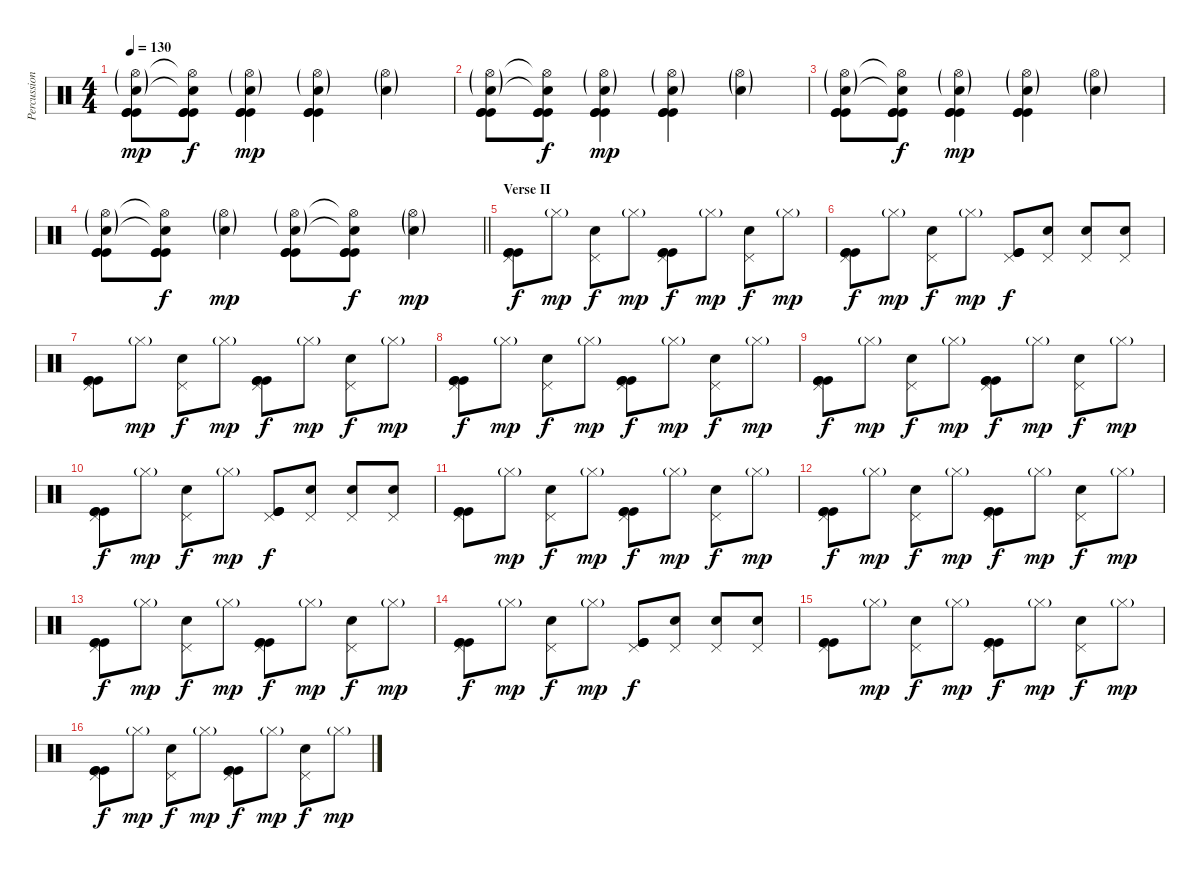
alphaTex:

\track ("Percussion" "Percussion") {instrument percussion}
\staff {score}
\articulation defaults
\ts (4 4)
\tempo 130
\clef neutral
\ks c
("Hi-Hat (open)"{g} "Snare (hit) 2"{g} "Kick (hit)" "Kick (hit)" "Kick (hit)").8{dy mp} ("Hi-Hat (open)"{t} "Snare (hit) 2"{t} "Kick (hit)" "Kick (hit)" "Kick (hit)").8{dy f} ("Hi-Hat (open)"{g} "Snare (hit) 2"{g} "Kick (hit)" "Kick (hit)" "Kick (hit)").4{dy mp} ("Hi-Hat (open)"{g} "Snare (hit) 2"{g} "Kick (hit)" "Kick (hit)" "Kick (hit)").4 ("Hi-Hat (open)"{g} "Snare (hit) 2"{g}).4 |
("Hi-Hat (open)"{g} "Snare (hit) 2"{g} "Kick (hit)" "Kick (hit)" "Kick (hit)").8 ("Hi-Hat (open)"{t} "Snare (hit) 2"{t} "Kick (hit)" "Kick (hit)" "Kick (hit)").8{dy f} ("Hi-Hat (open)"{g} "Snare (hit) 2"{g} "Kick (hit)" "Kick (hit)" "Kick (hit)").4{dy mp} ("Hi-Hat (open)"{g} "Snare (hit) 2"{g} "Kick (hit)" "Kick (hit)" "Kick (hit)").4 ("Hi-Hat (open)"{g} "Snare (hit) 2"{g}).4 |
("Hi-Hat (open)"{g} "Snare (hit) 2"{g} "Kick (hit)" "Kick (hit)" "Kick (hit)").8 ("Hi-Hat (open)"{t} "Snare (hit) 2"{t} "Kick (hit)" "Kick (hit)" "Kick (hit)").8{dy f} ("Hi-Hat (open)"{g} "Snare (hit) 2"{g} "Kick (hit)" "Kick (hit)" "Kick (hit)").4{dy mp} ("Hi-Hat (open)"{g} "Snare (hit) 2"{g} "Kick (hit)" "Kick (hit)" "Kick (hit)").4 ("Hi-Hat (open)"{g} "Snare (hit) 2"{g}).4 |
\barLineRight lightlight
("Hi-Hat (open)"{g} "Snare (hit) 2"{g} "Kick (hit)" "Kick (hit)" "Kick (hit)").8 ("Hi-Hat (open)"{t} "Snare (hit) 2"{t} "Kick (hit)" "Kick (hit)" "Kick (hit)").8{dy f} ("Hi-Hat (open)"{g} "Snare (hit) 2"{g}).4{dy mp} ("Hi-Hat (open)"{g} "Snare (hit) 2"{g} "Kick (hit)" "Kick (hit)" "Kick (hit)").8 ("Hi-Hat (open)"{t} "Snare (hit) 2"{t} "Kick (hit)" "Kick (hit)" "Kick (hit)").8{dy f} ("Hi-Hat (open)"{g} "Snare (hit) 2"{g}).4{dy mp} |
\section ("" "Verse II")
("Pedal Hi-Hat (hit)" "Kick (hit)" "Kick (hit)" "Kick (hit)").8{dy f} "Hi-Hat (closed)"{g}.8{dy mp} ("Pedal Hi-Hat (hit)" "Snare (hit) 2").8{dy f} "Hi-Hat (closed)"{g}.8{dy mp} ("Pedal Hi-Hat (hit)" "Kick (hit)" "Kick (hit)" "Kick (hit)").8{dy f} "Hi-Hat (closed)"{g}.8{dy mp} ("Pedal Hi-Hat (hit)" "Snare (hit) 2").8{dy f} "Hi-Hat (closed)"{g}.8{dy mp} |
("Pedal Hi-Hat (hit)" "Kick (hit)" "Kick (hit)" "Kick (hit)").8{dy f} "Hi-Hat (closed)"{g}.8{dy mp} ("Pedal Hi-Hat (hit)" "Snare (hit) 2").8{dy f} "Hi-Hat (closed)"{g}.8{dy mp} ("Pedal Hi-Hat (hit)" "Kick (hit)" "Kick (hit)" "Kick (hit)").8{dy f} ("Pedal Hi-Hat (hit)" "Snare (hit) 2").8 ("Pedal Hi-Hat (hit)" "Snare (hit) 2").8 ("Pedal Hi-Hat (hit)" "Snare (hit) 2").8 |
("Pedal Hi-Hat (hit)" "Kick (hit)" "Kick (hit)" "Kick (hit)").8 "Hi-Hat (closed)"{g}.8{dy mp} ("Pedal Hi-Hat (hit)" "Snare (hit) 2").8{dy f} "Hi-Hat (closed)"{g}.8{dy mp} ("Pedal Hi-Hat (hit)" "Kick (hit)" "Kick (hit)" "Kick (hit)").8{dy f} "Hi-Hat (closed)"{g}.8{dy mp} ("Pedal Hi-Hat (hit)" "Snare (hit) 2").8{dy f} "Hi-Hat (closed)"{g}.8{dy mp} |
("Pedal Hi-Hat (hit)" "Kick (hit)" "Kick (hit)" "Kick (hit)").8{dy f} "Hi-Hat (closed)"{g}.8{dy mp} ("Pedal Hi-Hat (hit)" "Snare (hit) 2").8{dy f} "Hi-Hat (closed)"{g}.8{dy mp} ("Pedal Hi-Hat (hit)" "Kick (hit)" "Kick (hit)" "Kick (hit)").8{dy f} "Hi-Hat (closed)"{g}.8{dy mp} ("Pedal Hi-Hat (hit)" "Snare (hit) 2").8{dy f} "Hi-Hat (closed)"{g}.8{dy mp} |
("Pedal Hi-Hat (hit)" "Kick (hit)" "Kick (hit)" "Kick (hit)").8{dy f} "Hi-Hat (closed)"{g}.8{dy mp} ("Pedal Hi-Hat (hit)" "Snare (hit) 2").8{dy f} "Hi-Hat (closed)"{g}.8{dy mp} ("Pedal Hi-Hat (hit)" "Kick (hit)" "Kick (hit)" "Kick (hit)").8{dy f} "Hi-Hat (closed)"{g}.8{dy mp} ("Pedal Hi-Hat (hit)" "Snare (hit) 2").8{dy f} "Hi-Hat (closed)"{g}.8{dy mp} |
("Pedal Hi-Hat (hit)" "Kick (hit)" "Kick (hit)" "Kick (hit)").8{dy f} "Hi-Hat (closed)"{g}.8{dy mp} ("Pedal Hi-Hat (hit)" "Snare (hit) 2").8{dy f} "Hi-Hat (closed)"{g}.8{dy mp} ("Pedal Hi-Hat (hit)" "Kick (hit)" "Kick (hit)" "Kick (hit)").8{dy f} ("Pedal Hi-Hat (hit)" "Snare (hit) 2").8 ("Pedal Hi-Hat (hit)" "Snare (hit) 2").8 ("Pedal Hi-Hat (hit)" "Snare (hit) 2").8 |
("Pedal Hi-Hat (hit)" "Kick (hit)" "Kick (hit)" "Kick (hit)").8 "Hi-Hat (closed)"{g}.8{dy mp} ("Pedal Hi-Hat (hit)" "Snare (hit) 2").8{dy f} "Hi-Hat (closed)"{g}.8{dy mp} ("Pedal Hi-Hat (hit)" "Kick (hit)" "Kick (hit)" "Kick (hit)").8{dy f} "Hi-Hat (closed)"{g}.8{dy mp} ("Pedal Hi-Hat (hit)" "Snare (hit) 2").8{dy f} "Hi-Hat (closed)"{g}.8{dy mp} |
("Pedal Hi-Hat (hit)" "Kick (hit)" "Kick (hit)" "Kick (hit)").8{dy f} "Hi-Hat (closed)"{g}.8{dy mp} ("Pedal Hi-Hat (hit)" "Snare (hit) 2").8{dy f} "Hi-Hat (closed)"{g}.8{dy mp} ("Pedal Hi-Hat (hit)" "Kick (hit)" "Kick (hit)" "Kick (hit)").8{dy f} "Hi-Hat (closed)"{g}.8{dy mp} ("Pedal Hi-Hat (hit)" "Snare (hit) 2").8{dy f} "Hi-Hat (closed)"{g}.8{dy mp} |
("Pedal Hi-Hat (hit)" "Kick (hit)" "Kick (hit)" "Kick (hit)").8{dy f} "Hi-Hat (closed)"{g}.8{dy mp} ("Pedal Hi-Hat (hit)" "Snare (hit) 2").8{dy f} "Hi-Hat (closed)"{g}.8{dy mp} ("Pedal Hi-Hat (hit)" "Kick (hit)" "Kick (hit)" "Kick (hit)").8{dy f} "Hi-Hat (closed)"{g}.8{dy mp} ("Pedal Hi-Hat (hit)" "Snare (hit) 2").8{dy f} "Hi-Hat (closed)"{g}.8{dy mp} |
("Pedal Hi-Hat (hit)" "Kick (hit)" "Kick (hit)" "Kick (hit)").8{dy f} "Hi-Hat (closed)"{g}.8{dy mp} ("Pedal Hi-Hat (hit)" "Snare (hit) 2").8{dy f} "Hi-Hat (closed)"{g}.8{dy mp} ("Pedal Hi-Hat (hit)" "Kick (hit)" "Kick (hit)" "Kick (hit)").8{dy f} ("Pedal Hi-Hat (hit)" "Snare (hit) 2").8 ("Pedal Hi-Hat (hit)" "Snare (hit) 2").8 ("Pedal Hi-Hat (hit)" "Snare (hit) 2").8 |
("Pedal Hi-Hat (hit)" "Kick (hit)" "Kick (hit)" "Kick (hit)").8 "Hi-Hat (closed)"{g}.8{dy mp} ("Pedal Hi-Hat (hit)" "Snare (hit) 2").8{dy f} "Hi-Hat (closed)"{g}.8{dy mp} ("Pedal Hi-Hat (hit)" "Kick (hit)" "Kick (hit)" "Kick (hit)").8{dy f} "Hi-Hat (closed)"{g}.8{dy mp} ("Pedal Hi-Hat (hit)" "Snare (hit) 2").8{dy f} "Hi-Hat (closed)"{g}.8{dy mp} |
("Pedal Hi-Hat (hit)" "Kick (hit)" "Kick (hit)" "Kick (hit)").8{dy f} "Hi-Hat (closed)"{g}.8{dy mp} ("Pedal Hi-Hat (hit)" "Snare (hit) 2").8{dy f} "Hi-Hat (closed)"{g}.8{dy mp} ("Pedal Hi-Hat (hit)" "Kick (hit)" "Kick (hit)" "Kick (hit)").8{dy f} "Hi-Hat (closed)"{g}.8{dy mp} ("Pedal Hi-Hat (hit)" "Snare (hit) 2").8{dy f} "Hi-Hat (closed)"{g}.8{dy mp}
